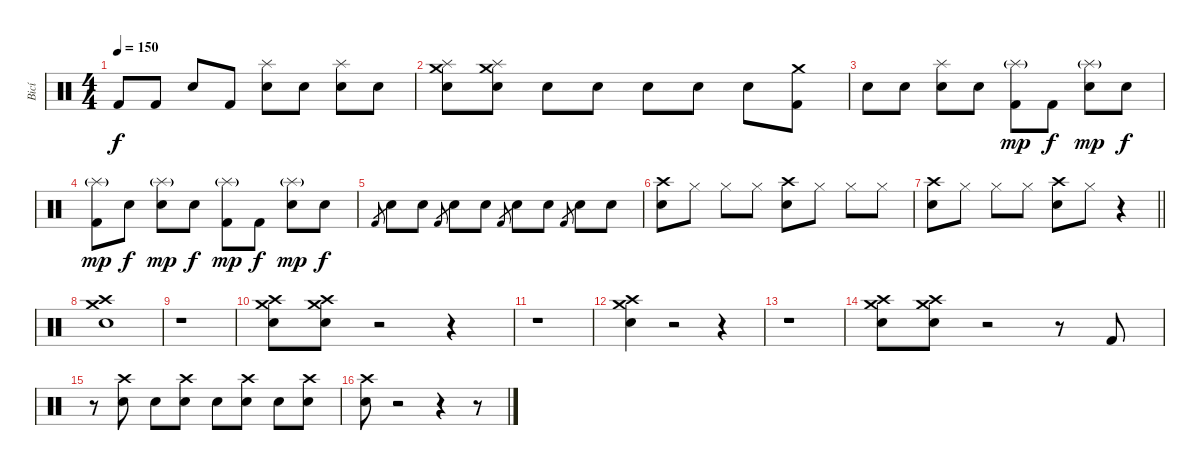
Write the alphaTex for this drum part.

\track ("Bicí" "Bicí") {instrument percussion}
\staff {score}
\articulation defaults
\ts (4 4)
\tempo 150
\clef neutral
\ks c "Kick (hit) 2".8{dy f} "Kick (hit) 2".8 "Electric Snare (hit)".8 "Kick (hit) 2".8
("Splash (hit)" "Electric Snare (hit)").8 "Snare (hit)".8 ("Splash (hit)" "Electric Snare (hit)").8 "Snare (hit)".8 |
("Crash medium (hit)" "Splash (hit)" "Electric Snare (hit)").8 ("Crash medium (hit)" "Splash (hit)" "Electric Snare (hit)").8 "Snare (hit)".8 "Snare (hit)".8 "Electric Snare (hit)".8 "Electric Snare (hit)".8 "Electric Snare (hit)".8 ("Crash medium (hit)" "Kick (hit) 2").8 |
"Snare (hit)".8 "Snare (hit)".8 ("Splash (hit)" "Electric Snare (hit)").8 "Snare (hit)".8 ("Splash (hit)"{g} "Kick (hit) 2").8{dy mp} "Kick (hit) 2".8{dy f} ("Splash (hit)"{g} "Electric Snare (hit)").8{dy mp} "Snare (hit)".8{dy f} |
("Splash (hit)"{g} "Kick (hit) 2").8{dy mp} "Snare (hit)".8{dy f} ("Splash (hit)"{g} "Electric Snare (hit)").8{dy mp} "Snare (hit)".8{dy f} ("Splash (hit)"{g} "Kick (hit) 2").8{dy mp} "Kick (hit) 2".8{dy f} ("Splash (hit)"{g} "Electric Snare (hit)").8{dy mp} "Snare (hit)".8{dy f} |
"Kick (hit) 2".8{gr} "Electric Snare (hit)".8 "Snare (hit)".8 "Kick (hit) 2".8{gr} "Electric Snare (hit)".8 "Snare (hit)".8 "Kick (hit) 2".8{gr} "Electric Snare (hit)".8 "Snare (hit)".8 "Kick (hit) 2".8{gr} "Electric Snare (hit)".8 "Snare (hit)".8 |
("Crash high (hit)" "Electric Snare (hit)").8 "Hi-Hat (closed)".8 "Hi-Hat (closed)".8 "Hi-Hat (closed)".8 ("Crash high (hit)" "Electric Snare (hit)").8 "Hi-Hat (closed)".8 "Hi-Hat (closed)".8 "Hi-Hat (closed)".8 |
\barLineRight lightlight
("Crash high (hit)" "Electric Snare (hit)").8 "Hi-Hat (closed)".8 "Hi-Hat (closed)".8 "Hi-Hat (closed)".8 ("Crash high (hit)" "Electric Snare (hit)").8 "Hi-Hat (closed)".8 r.4 |
("Crash high (hit)" "Crash medium (hit)" "Electric Snare (hit)").1 |
r.1 |
("Crash high (hit)" "Crash medium (hit)" "Electric Snare (hit)").8 ("Crash high (hit)" "Crash medium (hit)" "Electric Snare (hit)").8 r.2 r.4 |
r.1 |
("Crash medium (hit)" "Crash high (hit)" "Electric Snare (hit)").4 r.2 r.4 |
r.1 |
("Crash medium (hit)" "Crash high (hit)" "Electric Snare (hit)").8 ("Crash medium (hit)" "Crash high (hit)" "Electric Snare (hit)").8 r.2 r.8 "Kick (hit) 2".8 |
r.8 ("Crash high (hit)" "Electric Snare (hit)").8 "Snare (hit)".8 ("Crash high (hit)" "Electric Snare (hit)").8 "Snare (hit)".8 ("Crash high (hit)" "Electric Snare (hit)").8 "Snare (hit)".8 ("Crash high (hit)" "Electric Snare (hit)").8 |
("Crash high (hit)" "Electric Snare (hit)").8 r.2 r.4 r.8
